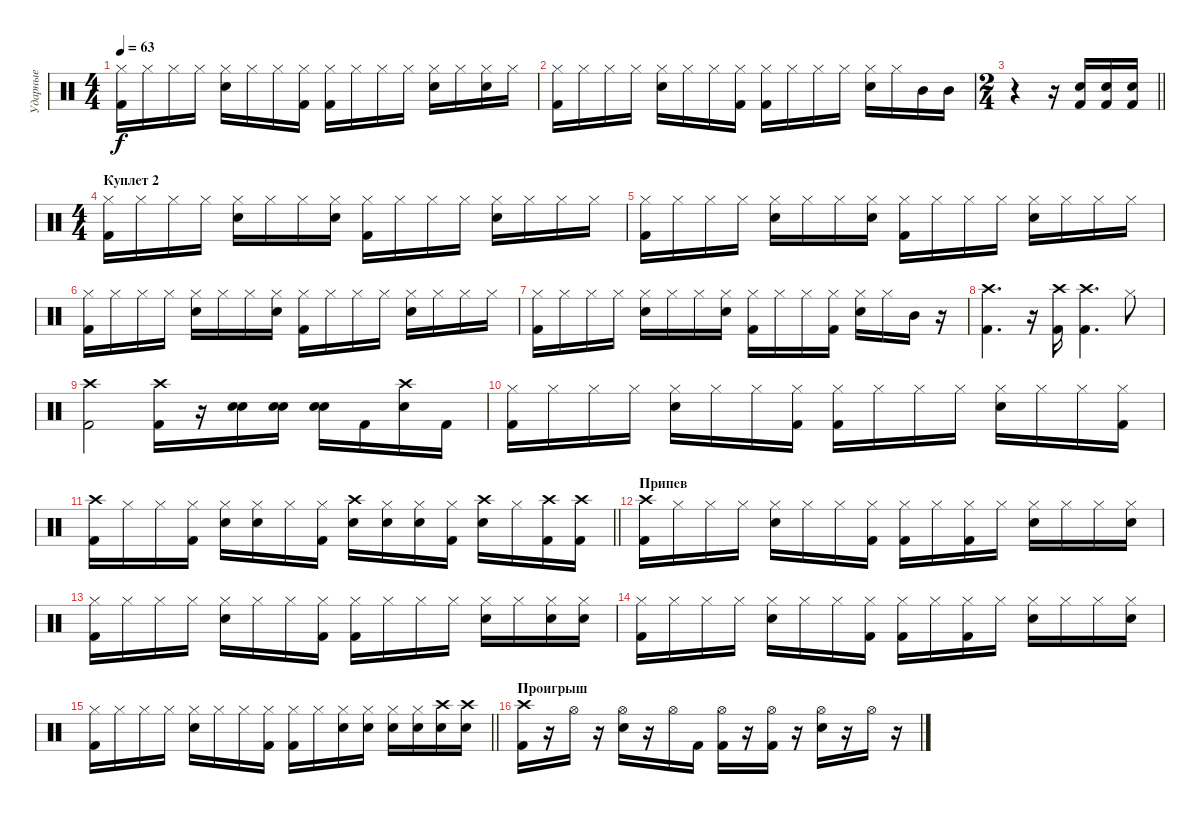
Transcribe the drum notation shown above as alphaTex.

\track ("Ударные" "Ударные") {instrument percussion}
\staff {score}
\articulation defaults
\ts (4 4)
\tempo 63
\clef neutral
\ks c
("Hi-Hat (closed)" "Kick (hit) 2").16{dy f} "Hi-Hat (closed)".16 "Hi-Hat (closed)".16 "Hi-Hat (closed)".16 ("Hi-Hat (closed)" "Electric Snare (hit)").16 "Hi-Hat (closed)".16 "Hi-Hat (closed)".16 ("Hi-Hat (closed)" "Kick (hit) 2").16 ("Hi-Hat (closed)" "Kick (hit) 2").16 "Hi-Hat (closed)".16 "Hi-Hat (closed)".16 "Hi-Hat (closed)".16 ("Hi-Hat (closed)" "Electric Snare (hit)").16 "Hi-Hat (closed)".16 ("Hi-Hat (closed)" "Electric Snare (hit)").16 "Hi-Hat (closed)".16 |
("Hi-Hat (closed)" "Kick (hit) 2").16 "Hi-Hat (closed)".16 "Hi-Hat (closed)".16 "Hi-Hat (closed)".16 ("Hi-Hat (closed)" "Electric Snare (hit)").16 "Hi-Hat (closed)".16 "Hi-Hat (closed)".16 ("Hi-Hat (closed)" "Kick (hit) 2").16 ("Hi-Hat (closed)" "Kick (hit) 2").16 "Hi-Hat (closed)".16 "Hi-Hat (closed)".16 "Hi-Hat (closed)".16 ("Hi-Hat (closed)" "Electric Snare (hit)").16 "Hi-Hat (closed)".16 "Mid Tom (hit)".16 "Mid Tom (hit)".16 |
\ts (2 4)
\barLineRight lightlight
r.4 r.16 ("Electric Snare (hit)" "Kick (hit) 2").16 ("Electric Snare (hit)" "Kick (hit) 2").16 ("Electric Snare (hit)" "Kick (hit) 2").16 |
\ts (4 4)
\section ("" "Куплет 2")
("Hi-Hat (closed)" "Kick (hit) 2").16 "Hi-Hat (closed)".16 "Hi-Hat (closed)".16 "Hi-Hat (closed)".16 ("Hi-Hat (closed)" "Electric Snare (hit)").16 "Hi-Hat (closed)".16 "Hi-Hat (closed)".16 ("Hi-Hat (closed)" "Electric Snare (hit)").16 ("Hi-Hat (closed)" "Kick (hit) 2").16 "Hi-Hat (closed)".16 "Hi-Hat (closed)".16 "Hi-Hat (closed)".16 ("Hi-Hat (closed)" "Electric Snare (hit)").16 "Hi-Hat (closed)".16 "Hi-Hat (closed)".16 "Hi-Hat (closed)".16 |
("Hi-Hat (closed)" "Kick (hit) 2").16 "Hi-Hat (closed)".16 "Hi-Hat (closed)".16 "Hi-Hat (closed)".16 ("Hi-Hat (closed)" "Electric Snare (hit)").16 "Hi-Hat (closed)".16 "Hi-Hat (closed)".16 ("Hi-Hat (closed)" "Electric Snare (hit)").16 ("Hi-Hat (closed)" "Kick (hit) 2").16 "Hi-Hat (closed)".16 "Hi-Hat (closed)".16 "Hi-Hat (closed)".16 ("Hi-Hat (closed)" "Electric Snare (hit)").16 "Hi-Hat (closed)".16 "Hi-Hat (closed)".16 "Hi-Hat (closed)".16 |
("Hi-Hat (closed)" "Kick (hit) 2").16 "Hi-Hat (closed)".16 "Hi-Hat (closed)".16 "Hi-Hat (closed)".16 ("Hi-Hat (closed)" "Electric Snare (hit)").16 "Hi-Hat (closed)".16 "Hi-Hat (closed)".16 ("Hi-Hat (closed)" "Electric Snare (hit)").16 ("Hi-Hat (closed)" "Kick (hit) 2").16 "Hi-Hat (closed)".16 "Hi-Hat (closed)".16 "Hi-Hat (closed)".16 ("Hi-Hat (closed)" "Electric Snare (hit)").16 "Hi-Hat (closed)".16 "Hi-Hat (closed)".16 "Hi-Hat (closed)".16 |
("Hi-Hat (closed)" "Kick (hit) 2").16 "Hi-Hat (closed)".16 "Hi-Hat (closed)".16 "Hi-Hat (closed)".16 ("Hi-Hat (closed)" "Electric Snare (hit)").16 "Hi-Hat (closed)".16 "Hi-Hat (closed)".16 ("Hi-Hat (closed)" "Electric Snare (hit)").16 ("Hi-Hat (closed)" "Kick (hit) 2").16 "Hi-Hat (closed)".16 "Hi-Hat (closed)".16 ("Hi-Hat (closed)" "Kick (hit) 2").16 ("Hi-Hat (closed)" "Electric Snare (hit)").16 "Hi-Hat (closed)".16 "Mid Tom (hit)".16 r.16 |
("Crash high (hit)" "Kick (hit) 2").4{d} r.16 ("Crash high (hit)" "Kick (hit) 2").16 ("Crash high (hit)" "Kick (hit) 2").4{d} "Hi-Hat (closed)".8 |
("Crash high (hit)" "Kick (hit) 2").2 ("Crash high (hit)" "Kick (hit) 2").16 r.16{volume 6} ("Electric Snare (hit)" "Electric Snare (hit)").16{volume 14} ("Electric Snare (hit)" "Electric Snare (hit)").16 ("Electric Snare (hit)" "Electric Snare (hit)").16 "Kick (hit) 2".16 ("Crash high (hit)" "Electric Snare (hit)").16 "Kick (hit) 2".16 |
("Hi-Hat (closed)" "Kick (hit) 2").16{volume 16} "Hi-Hat (closed)".16 "Hi-Hat (closed)".16 "Hi-Hat (closed)".16 ("Hi-Hat (closed)" "Electric Snare (hit)").16 "Hi-Hat (closed)".16 "Hi-Hat (closed)".16 ("Hi-Hat (closed)" "Kick (hit) 2").16 ("Hi-Hat (closed)" "Kick (hit) 2").16 "Hi-Hat (closed)".16 "Hi-Hat (closed)".16 "Hi-Hat (closed)".16 ("Hi-Hat (closed)" "Electric Snare (hit)").16 "Hi-Hat (closed)".16 "Hi-Hat (closed)".16 ("Hi-Hat (closed)" "Kick (hit) 2").16 |
\barLineRight lightlight
("Crash high (hit)" "Kick (hit) 2").16 "Hi-Hat (closed)".16 "Hi-Hat (closed)".16 ("Hi-Hat (closed)" "Kick (hit) 2").16 ("Hi-Hat (closed)" "Electric Snare (hit)").16 ("Hi-Hat (closed)" "Electric Snare (hit)").16 "Hi-Hat (closed)".16 ("Hi-Hat (closed)" "Kick (hit) 2").16 ("Crash high (hit)" "Electric Snare (hit)").16 ("Hi-Hat (closed)" "Electric Snare (hit)").16 ("Hi-Hat (closed)" "Electric Snare (hit)").16 ("Hi-Hat (closed)" "Kick (hit) 2").16 ("Crash high (hit)" "Electric Snare (hit)").16 "Hi-Hat (closed)".16 ("Crash high (hit)" "Kick (hit) 2").16 ("Crash high (hit)" "Kick (hit) 2").16 |
\section ("" "Припев")
("Crash high (hit)" "Kick (hit) 2").16 "Hi-Hat (closed)".16 "Hi-Hat (closed)".16 "Hi-Hat (closed)".16 ("Hi-Hat (closed)" "Electric Snare (hit)").16 "Hi-Hat (closed)".16 "Hi-Hat (closed)".16 ("Hi-Hat (closed)" "Kick (hit) 2").16 ("Hi-Hat (closed)" "Kick (hit) 2").16 "Hi-Hat (closed)".16 ("Hi-Hat (closed)" "Kick (hit) 2").16 "Hi-Hat (closed)".16 ("Hi-Hat (closed)" "Electric Snare (hit)").16 "Hi-Hat (closed)".16 "Hi-Hat (closed)".16 ("Hi-Hat (closed)" "Electric Snare (hit)").16 |
("Hi-Hat (closed)" "Kick (hit) 2").16 "Hi-Hat (closed)".16 "Hi-Hat (closed)".16 "Hi-Hat (closed)".16 ("Hi-Hat (closed)" "Electric Snare (hit)").16 "Hi-Hat (closed)".16 "Hi-Hat (closed)".16 ("Hi-Hat (closed)" "Kick (hit) 2").16 ("Hi-Hat (closed)" "Kick (hit) 2").16 "Hi-Hat (closed)".16 "Hi-Hat (closed)".16 "Hi-Hat (closed)".16 ("Hi-Hat (closed)" "Electric Snare (hit)").16 "Hi-Hat (closed)".16 ("Hi-Hat (closed)" "Electric Snare (hit)").16 ("Hi-Hat (closed)" "Electric Snare (hit)").16 |
("Hi-Hat (closed)" "Kick (hit) 2").16 "Hi-Hat (closed)".16 "Hi-Hat (closed)".16 "Hi-Hat (closed)".16 ("Hi-Hat (closed)" "Electric Snare (hit)").16 "Hi-Hat (closed)".16 "Hi-Hat (closed)".16 ("Hi-Hat (closed)" "Kick (hit) 2").16 ("Hi-Hat (closed)" "Kick (hit) 2").16 "Hi-Hat (closed)".16 ("Hi-Hat (closed)" "Kick (hit) 2").16 "Hi-Hat (closed)".16 ("Hi-Hat (closed)" "Electric Snare (hit)").16 "Hi-Hat (closed)".16 "Hi-Hat (closed)".16 ("Hi-Hat (closed)" "Electric Snare (hit)").16 |
\barLineRight lightlight
("Hi-Hat (closed)" "Kick (hit) 2").16 "Hi-Hat (closed)".16 "Hi-Hat (closed)".16 "Hi-Hat (closed)".16 ("Hi-Hat (closed)" "Electric Snare (hit)").16 "Hi-Hat (closed)".16 "Hi-Hat (closed)".16 ("Hi-Hat (closed)" "Kick (hit) 2").16 ("Hi-Hat (closed)" "Kick (hit) 2").16 "Hi-Hat (closed)".16 ("Hi-Hat (closed)" "Electric Snare (hit)").16 ("Hi-Hat (closed)" "Electric Snare (hit)").16 ("Hi-Hat (closed)" "Electric Snare (hit)").16 ("Hi-Hat (closed)" "Electric Snare (hit)").16 ("Crash high (hit)" "Electric Snare (hit)").16 ("Crash high (hit)" "Electric Snare (hit)").16 |
\section ("" "Проигрыш")
("Crash high (hit)" "Kick (hit) 2").16 r.16 "Hi-Hat (open)".16 r.16 ("Hi-Hat (open)" "Electric Snare (hit)").16 r.16 "Hi-Hat (open)".16 "Kick (hit) 2".16 ("Hi-Hat (open)" "Kick (hit) 2").16 r.16 ("Hi-Hat (open)" "Kick (hit) 2").16 r.16 ("Hi-Hat (open)" "Electric Snare (hit)").16 r.16 "Hi-Hat (open)".16 r.16
